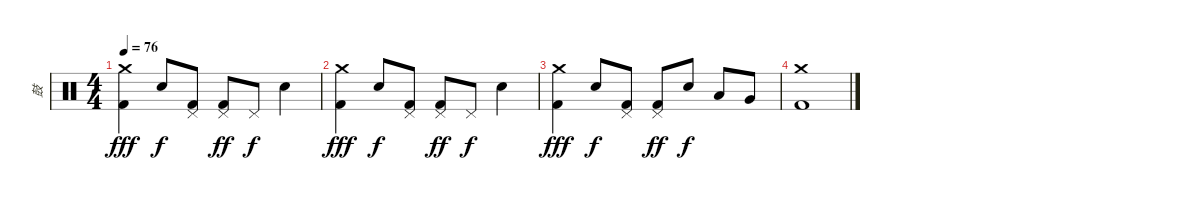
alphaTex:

\track ("鼓" "鼓") {instrument percussion}
\staff {score}
\articulation defaults
\ts (4 4)
\tempo 76
\clef neutral
\ks c
("Kick (hit) 2" "Crash medium (hit)").4{dy fff} "Electric Snare (hit)".8{dy f} ("Kick (hit) 2" "Pedal Hi-Hat (hit)").8 ("Kick (hit) 2" "Pedal Hi-Hat (hit)").8{dy ff} "Pedal Hi-Hat (hit)".8{dy f} "Electric Snare (hit)".4 |
("Kick (hit) 2" "Crash medium (hit)").4{dy fff} "Electric Snare (hit)".8{dy f} ("Kick (hit) 2" "Pedal Hi-Hat (hit)").8 ("Kick (hit) 2" "Pedal Hi-Hat (hit)").8{dy ff} "Pedal Hi-Hat (hit)".8{dy f} "Electric Snare (hit)".4 |
("Kick (hit) 2" "Crash medium (hit)").4{dy fff} "Electric Snare (hit)".8{dy f} ("Kick (hit) 2" "Pedal Hi-Hat (hit)").8 ("Kick (hit) 2" "Pedal Hi-Hat (hit)").8{dy ff} "Electric Snare (hit)".8{dy f} "Low Tom (hit)".8 "Very Low Tom (hit)".8 |
("Kick (hit) 2" "Crash medium (hit)").1
